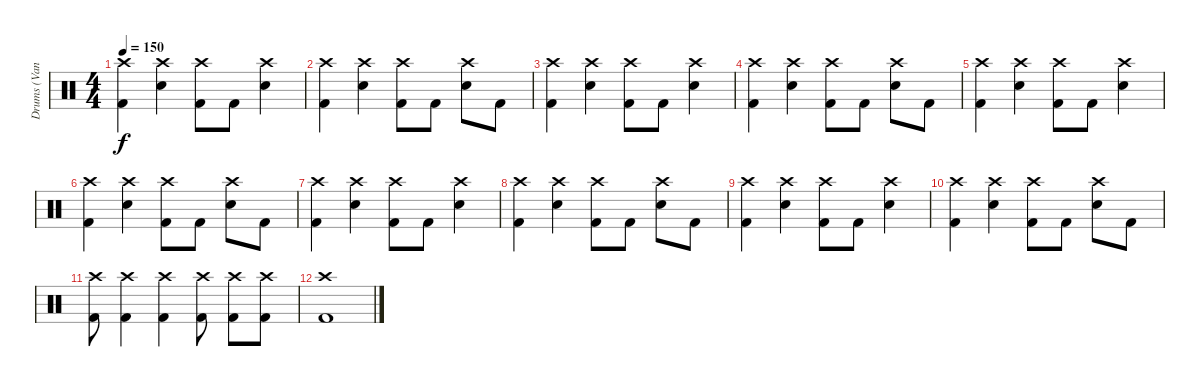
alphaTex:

\track ("Drums (Vandel)" "Drums (Van") {instrument percussion}
\staff {score}
\articulation defaults
\ts (4 4)
\tempo 150
\clef neutral
\ks c
("Crash high (hit)" "Kick (hit) 2").4{dy f} ("Crash high (hit)" "Snare (hit) 2").4 ("Crash high (hit)" "Kick (hit) 2").8 "Kick (hit) 2".8 ("Crash high (hit)" "Snare (hit) 2").4 |
("Crash high (hit)" "Kick (hit) 2").4 ("Crash high (hit)" "Snare (hit) 2").4 ("Crash high (hit)" "Kick (hit) 2").8 "Kick (hit) 2".8 ("Crash high (hit)" "Snare (hit) 2").8 "Kick (hit) 2".8 |
("Crash high (hit)" "Kick (hit) 2").4 ("Crash high (hit)" "Snare (hit) 2").4 ("Crash high (hit)" "Kick (hit) 2").8 "Kick (hit) 2".8 ("Crash high (hit)" "Snare (hit) 2").4 |
("Crash high (hit)" "Kick (hit) 2").4 ("Crash high (hit)" "Snare (hit) 2").4 ("Crash high (hit)" "Kick (hit) 2").8 "Kick (hit) 2".8 ("Crash high (hit)" "Snare (hit) 2").8 "Kick (hit) 2".8 |
("Crash high (hit)" "Kick (hit) 2").4 ("Crash high (hit)" "Snare (hit) 2").4 ("Crash high (hit)" "Kick (hit) 2").8 "Kick (hit) 2".8 ("Crash high (hit)" "Snare (hit) 2").4 |
("Crash high (hit)" "Kick (hit) 2").4 ("Crash high (hit)" "Snare (hit) 2").4 ("Crash high (hit)" "Kick (hit) 2").8 "Kick (hit) 2".8 ("Crash high (hit)" "Snare (hit) 2").8 "Kick (hit) 2".8 |
("Crash high (hit)" "Kick (hit) 2").4 ("Crash high (hit)" "Snare (hit) 2").4 ("Crash high (hit)" "Kick (hit) 2").8 "Kick (hit) 2".8 ("Crash high (hit)" "Snare (hit) 2").4 |
("Crash high (hit)" "Kick (hit) 2").4 ("Crash high (hit)" "Snare (hit) 2").4 ("Crash high (hit)" "Kick (hit) 2").8 "Kick (hit) 2".8 ("Crash high (hit)" "Snare (hit) 2").8 "Kick (hit) 2".8 |
("Crash high (hit)" "Kick (hit) 2").4 ("Crash high (hit)" "Snare (hit) 2").4 ("Crash high (hit)" "Kick (hit) 2").8 "Kick (hit) 2".8 ("Crash high (hit)" "Snare (hit) 2").4 |
("Crash high (hit)" "Kick (hit) 2").4 ("Crash high (hit)" "Snare (hit) 2").4 ("Crash high (hit)" "Kick (hit) 2").8 "Kick (hit) 2".8 ("Crash high (hit)" "Snare (hit) 2").8 "Kick (hit) 2".8 |
("Crash high (hit)" "Kick (hit) 2").8 ("Crash high (hit)" "Kick (hit) 2").4 ("Crash high (hit)" "Kick (hit) 2").4 ("Crash high (hit)" "Kick (hit) 2").8 ("Crash high (hit)" "Kick (hit) 2").8 ("Crash high (hit)" "Kick (hit) 2").8 |
("Crash high (hit)" "Kick (hit) 2").1
